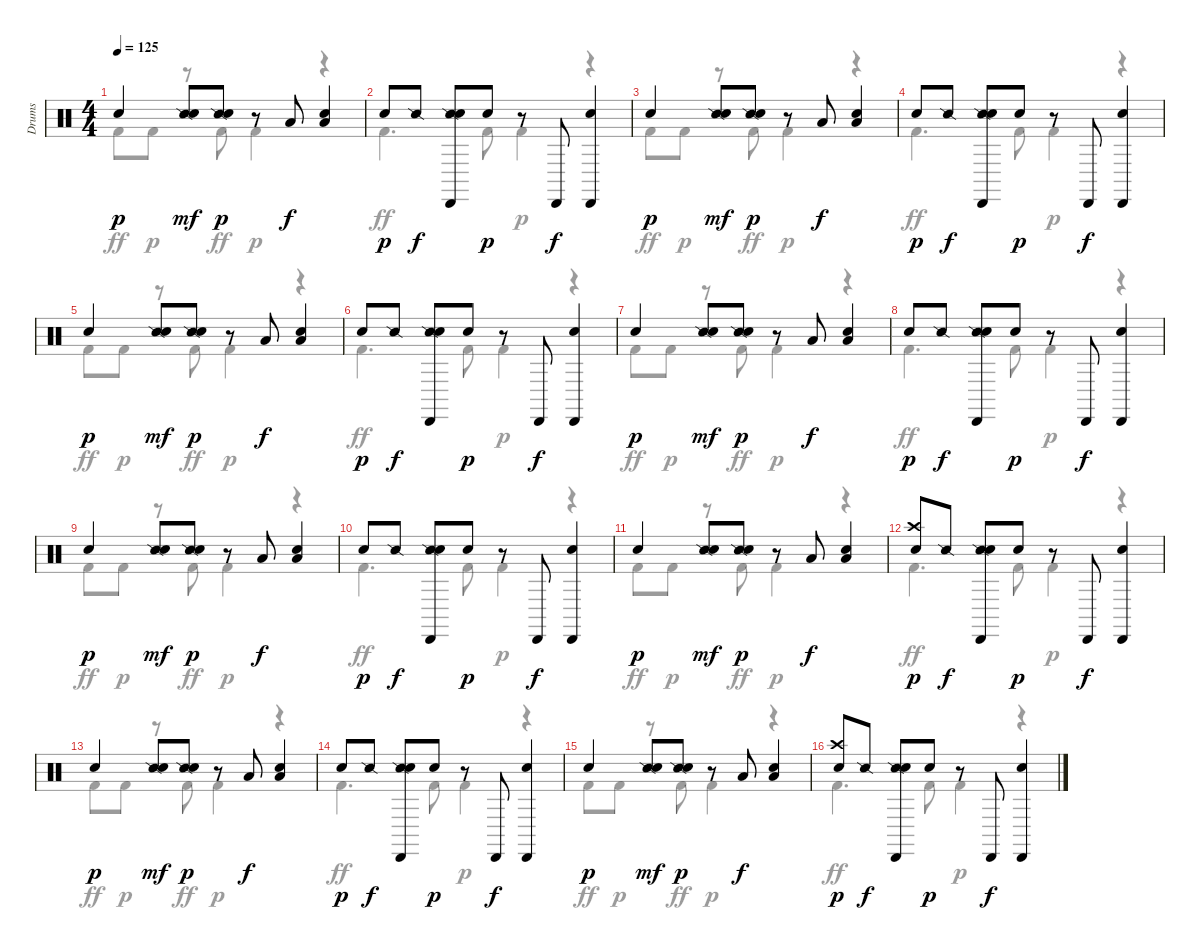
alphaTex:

\track ("Drums" "Drums") {instrument percussion}
\staff {score}
\articulation defaults
\voice
\ts (4 4)
\tempo 125
\clef neutral
\ks c "Hand Clap (hit)".4{dy p}
("Snare (side stick) 2" "Snare (hit) 2").8{dy mf} ("Snare (side stick) 2" "Hand Clap (hit)").8{dy p} r.8 "Low Tom (hit)".8{dy f} ("Low Tom (hit)" "Snare (hit) 2").4 |
"Hand Clap (hit)".8{dy p} "Snare (side stick) 2".8{dy f} ("Snare (side stick) 2" "Cabasa (hit)" "Snare (hit) 2").8 "Hand Clap (hit)".8{dy p} r.8 "Cabasa (hit)".8{dy f} ("Cabasa (hit)" "Snare (hit) 2").4 |
"Hand Clap (hit)".4{dy p} ("Snare (side stick) 2" "Snare (hit) 2").8{dy mf} ("Snare (side stick) 2" "Hand Clap (hit)").8{dy p} r.8 "Low Tom (hit)".8{dy f} ("Low Tom (hit)" "Snare (hit) 2").4 |
"Hand Clap (hit)".8{dy p} "Snare (side stick) 2".8{dy f} ("Snare (side stick) 2" "Cabasa (hit)" "Snare (hit) 2").8 "Hand Clap (hit)".8{dy p} r.8 "Cabasa (hit)".8{dy f} ("Cabasa (hit)" "Snare (hit) 2").4 |
"Hand Clap (hit)".4{dy p} ("Snare (side stick) 2" "Snare (hit) 2").8{dy mf} ("Snare (side stick) 2" "Hand Clap (hit)").8{dy p} r.8 "Low Tom (hit)".8{dy f} ("Low Tom (hit)" "Snare (hit) 2").4 |
"Hand Clap (hit)".8{dy p} "Snare (side stick) 2".8{dy f} ("Snare (side stick) 2" "Cabasa (hit)" "Snare (hit) 2").8 "Hand Clap (hit)".8{dy p} r.8 "Cabasa (hit)".8{dy f} ("Cabasa (hit)" "Snare (hit) 2").4 |
"Hand Clap (hit)".4{dy p} ("Snare (side stick) 2" "Snare (hit) 2").8{dy mf} ("Snare (side stick) 2" "Hand Clap (hit)").8{dy p} r.8 "Low Tom (hit)".8{dy f} ("Low Tom (hit)" "Snare (hit) 2").4 |
"Hand Clap (hit)".8{dy p} "Snare (side stick) 2".8{dy f} ("Snare (side stick) 2" "Cabasa (hit)" "Snare (hit) 2").8 "Hand Clap (hit)".8{dy p} r.8 "Cabasa (hit)".8{dy f} ("Cabasa (hit)" "Snare (hit) 2").4 |
"Hand Clap (hit)".4{dy p} ("Snare (side stick) 2" "Snare (hit) 2").8{dy mf} ("Snare (side stick) 2" "Hand Clap (hit)").8{dy p} r.8 "Low Tom (hit)".8{dy f} ("Low Tom (hit)" "Snare (hit) 2").4 |
"Hand Clap (hit)".8{dy p} "Snare (side stick) 2".8{dy f} ("Snare (side stick) 2" "Cabasa (hit)" "Snare (hit) 2").8 "Hand Clap (hit)".8{dy p} r.8 "Cabasa (hit)".8{dy f} ("Cabasa (hit)" "Snare (hit) 2").4 |
"Hand Clap (hit)".4{dy p} ("Snare (side stick) 2" "Snare (hit) 2").8{dy mf} ("Snare (side stick) 2" "Hand Clap (hit)").8{dy p} r.8 "Low Tom (hit)".8{dy f} ("Low Tom (hit)" "Snare (hit) 2").4 |
("Crash high (hit)" "Hand Clap (hit)").8{dy p} "Snare (side stick) 2".8{dy f} ("Snare (side stick) 2" "Cabasa (hit)" "Snare (hit) 2").8 "Hand Clap (hit)".8{dy p} r.8 "Cabasa (hit)".8{dy f} ("Cabasa (hit)" "Snare (hit) 2").4 |
"Hand Clap (hit)".4{dy p} ("Snare (side stick) 2" "Snare (hit) 2").8{dy mf} ("Snare (side stick) 2" "Hand Clap (hit)").8{dy p} r.8 "Low Tom (hit)".8{dy f} ("Low Tom (hit)" "Snare (hit) 2").4 |
"Hand Clap (hit)".8{dy p} "Snare (side stick) 2".8{dy f} ("Snare (side stick) 2" "Cabasa (hit)" "Snare (hit) 2").8 "Hand Clap (hit)".8{dy p} r.8 "Cabasa (hit)".8{dy f} ("Cabasa (hit)" "Snare (hit) 2").4 |
"Hand Clap (hit)".4{dy p} ("Snare (side stick) 2" "Snare (hit) 2").8{dy mf} ("Snare (side stick) 2" "Hand Clap (hit)").8{dy p} r.8 "Low Tom (hit)".8{dy f} ("Low Tom (hit)" "Snare (hit) 2").4 |
("Crash high (hit)" "Hand Clap (hit)").8{dy p} "Snare (side stick) 2".8{dy f} ("Snare (side stick) 2" "Cabasa (hit)" "Snare (hit) 2").8 "Hand Clap (hit)".8{dy p} r.8 "Cabasa (hit)".8{dy f} ("Cabasa (hit)" "Snare (hit) 2").4
\voice
\clef neutral
\ottava regular
\simile none
\ks c "Kick (hit) 2".8{dy ff} "Kick (hit) 2".8{dy p}
r.8 "Kick (hit) 2".8{dy ff} "Kick (hit) 2".4{dy p} r.4 |
"Kick (hit) 2".4{d dy ff} "Kick (hit) 2".8 "Kick (hit) 2".4{dy p} r.4 |
"Kick (hit) 2".8{dy ff} "Kick (hit) 2".8{dy p} r.8 "Kick (hit) 2".8{dy ff} "Kick (hit) 2".4{dy p} r.4 |
"Kick (hit) 2".4{d dy ff} "Kick (hit) 2".8 "Kick (hit) 2".4{dy p} r.4 |
"Kick (hit) 2".8{dy ff} "Kick (hit) 2".8{dy p} r.8 "Kick (hit) 2".8{dy ff} "Kick (hit) 2".4{dy p} r.4 |
"Kick (hit) 2".4{d dy ff} "Kick (hit) 2".8 "Kick (hit) 2".4{dy p} r.4 |
"Kick (hit) 2".8{dy ff} "Kick (hit) 2".8{dy p} r.8 "Kick (hit) 2".8{dy ff} "Kick (hit) 2".4{dy p} r.4 |
"Kick (hit) 2".4{d dy ff} "Kick (hit) 2".8 "Kick (hit) 2".4{dy p} r.4 |
"Kick (hit) 2".8{dy ff} "Kick (hit) 2".8{dy p} r.8 "Kick (hit) 2".8{dy ff} "Kick (hit) 2".4{dy p} r.4 |
"Kick (hit) 2".4{d dy ff} "Kick (hit) 2".8 "Kick (hit) 2".4{dy p} r.4 |
"Kick (hit) 2".8{dy ff} "Kick (hit) 2".8{dy p} r.8 "Kick (hit) 2".8{dy ff} "Kick (hit) 2".4{dy p} r.4 |
"Kick (hit) 2".4{d dy ff} "Kick (hit) 2".8 "Kick (hit) 2".4{dy p} r.4 |
"Kick (hit) 2".8{dy ff} "Kick (hit) 2".8{dy p} r.8 "Kick (hit) 2".8{dy ff} "Kick (hit) 2".4{dy p} r.4 |
"Kick (hit) 2".4{d dy ff} "Kick (hit) 2".8 "Kick (hit) 2".4{dy p} r.4 |
"Kick (hit) 2".8{dy ff} "Kick (hit) 2".8{dy p} r.8 "Kick (hit) 2".8{dy ff} "Kick (hit) 2".4{dy p} r.4 |
"Kick (hit) 2".4{d dy ff} "Kick (hit) 2".8 "Kick (hit) 2".4{dy p} r.4
